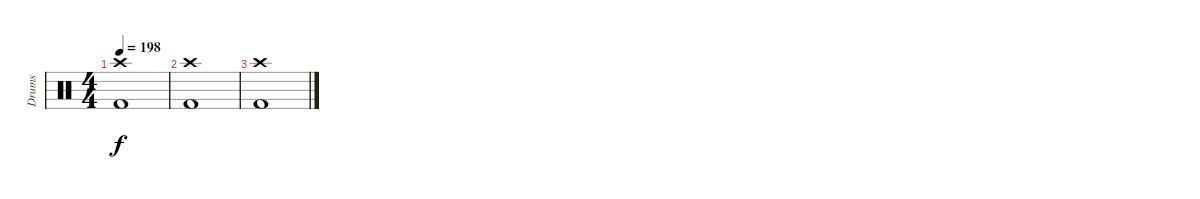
\track ("Drums" "Drums") {instrument percussion}
\staff {score}
\articulation defaults
\ts (4 4)
\tempo 198
\clef neutral
\ks c
("Crash high (hit)" "Kick (hit) 2").1{dy f} |
("Crash high (hit)" "Kick (hit) 2").1 |
("Crash high (hit)" "Kick (hit) 2").1
